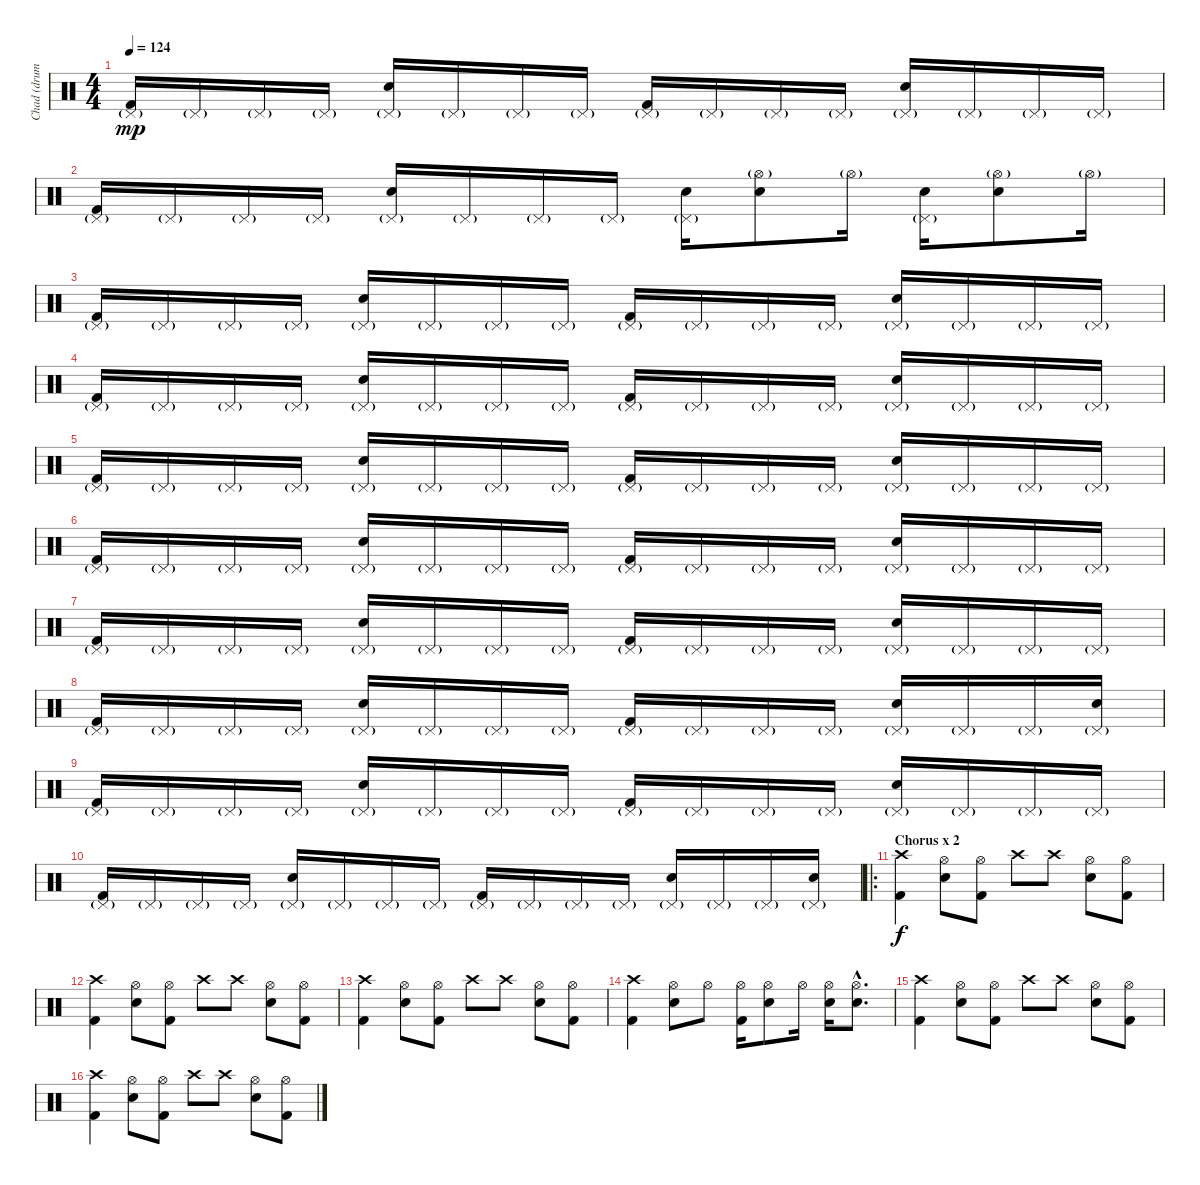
\track ("Chad (drums)" "Chad (drum") {instrument percussion}
\staff {score}
\articulation defaults
\ts (4 4)
\tempo 124
\clef neutral
\ks c
("Kick (hit) 2" "Pedal Hi-Hat (hit)"{g}).16{dy mp} "Pedal Hi-Hat (hit)"{g}.16 "Pedal Hi-Hat (hit)"{g}.16 "Pedal Hi-Hat (hit)"{g}.16 ("Electric Snare (hit)" "Pedal Hi-Hat (hit)"{g}).16 "Pedal Hi-Hat (hit)"{g}.16 "Pedal Hi-Hat (hit)"{g}.16 "Pedal Hi-Hat (hit)"{g}.16 ("Kick (hit) 2" "Pedal Hi-Hat (hit)"{g}).16 "Pedal Hi-Hat (hit)"{g}.16 "Pedal Hi-Hat (hit)"{g}.16 "Pedal Hi-Hat (hit)"{g}.16 ("Electric Snare (hit)" "Pedal Hi-Hat (hit)"{g}).16 "Pedal Hi-Hat (hit)"{g}.16 "Pedal Hi-Hat (hit)"{g}.16 "Pedal Hi-Hat (hit)"{g}.16 |
("Kick (hit) 2" "Pedal Hi-Hat (hit)"{g}).16 "Pedal Hi-Hat (hit)"{g}.16 "Pedal Hi-Hat (hit)"{g}.16 "Pedal Hi-Hat (hit)"{g}.16 ("Electric Snare (hit)" "Pedal Hi-Hat (hit)"{g}).16 "Pedal Hi-Hat (hit)"{g}.16 "Pedal Hi-Hat (hit)"{g}.16 "Pedal Hi-Hat (hit)"{g}.16 ("Electric Snare (hit)" "Pedal Hi-Hat (hit)"{g}).16 ("Electric Snare (hit)" "Hi-Hat (open)"{g}).8 "Hi-Hat (open)"{g}.16 ("Electric Snare (hit)" "Pedal Hi-Hat (hit)"{g}).16 ("Electric Snare (hit)" "Hi-Hat (open)"{g}).8 "Hi-Hat (open)"{g}.16 |
("Kick (hit) 2" "Pedal Hi-Hat (hit)"{g}).16 "Pedal Hi-Hat (hit)"{g}.16 "Pedal Hi-Hat (hit)"{g}.16 "Pedal Hi-Hat (hit)"{g}.16 ("Electric Snare (hit)" "Pedal Hi-Hat (hit)"{g}).16 "Pedal Hi-Hat (hit)"{g}.16 "Pedal Hi-Hat (hit)"{g}.16 "Pedal Hi-Hat (hit)"{g}.16 ("Kick (hit) 2" "Pedal Hi-Hat (hit)"{g}).16 "Pedal Hi-Hat (hit)"{g}.16 "Pedal Hi-Hat (hit)"{g}.16 "Pedal Hi-Hat (hit)"{g}.16 ("Electric Snare (hit)" "Pedal Hi-Hat (hit)"{g}).16 "Pedal Hi-Hat (hit)"{g}.16 "Pedal Hi-Hat (hit)"{g}.16 "Pedal Hi-Hat (hit)"{g}.16 |
("Kick (hit) 2" "Pedal Hi-Hat (hit)"{g}).16 "Pedal Hi-Hat (hit)"{g}.16 "Pedal Hi-Hat (hit)"{g}.16 "Pedal Hi-Hat (hit)"{g}.16 ("Electric Snare (hit)" "Pedal Hi-Hat (hit)"{g}).16 "Pedal Hi-Hat (hit)"{g}.16 "Pedal Hi-Hat (hit)"{g}.16 "Pedal Hi-Hat (hit)"{g}.16 ("Kick (hit) 2" "Pedal Hi-Hat (hit)"{g}).16 "Pedal Hi-Hat (hit)"{g}.16 "Pedal Hi-Hat (hit)"{g}.16 "Pedal Hi-Hat (hit)"{g}.16 ("Electric Snare (hit)" "Pedal Hi-Hat (hit)"{g}).16 "Pedal Hi-Hat (hit)"{g}.16 "Pedal Hi-Hat (hit)"{g}.16 "Pedal Hi-Hat (hit)"{g}.16 |
("Kick (hit) 2" "Pedal Hi-Hat (hit)"{g}).16 "Pedal Hi-Hat (hit)"{g}.16 "Pedal Hi-Hat (hit)"{g}.16 "Pedal Hi-Hat (hit)"{g}.16 ("Electric Snare (hit)" "Pedal Hi-Hat (hit)"{g}).16 "Pedal Hi-Hat (hit)"{g}.16 "Pedal Hi-Hat (hit)"{g}.16 "Pedal Hi-Hat (hit)"{g}.16 ("Kick (hit) 2" "Pedal Hi-Hat (hit)"{g}).16 "Pedal Hi-Hat (hit)"{g}.16 "Pedal Hi-Hat (hit)"{g}.16 "Pedal Hi-Hat (hit)"{g}.16 ("Electric Snare (hit)" "Pedal Hi-Hat (hit)"{g}).16 "Pedal Hi-Hat (hit)"{g}.16 "Pedal Hi-Hat (hit)"{g}.16 "Pedal Hi-Hat (hit)"{g}.16 |
("Kick (hit) 2" "Pedal Hi-Hat (hit)"{g}).16 "Pedal Hi-Hat (hit)"{g}.16 "Pedal Hi-Hat (hit)"{g}.16 "Pedal Hi-Hat (hit)"{g}.16 ("Electric Snare (hit)" "Pedal Hi-Hat (hit)"{g}).16 "Pedal Hi-Hat (hit)"{g}.16 "Pedal Hi-Hat (hit)"{g}.16 "Pedal Hi-Hat (hit)"{g}.16 ("Kick (hit) 2" "Pedal Hi-Hat (hit)"{g}).16 "Pedal Hi-Hat (hit)"{g}.16 "Pedal Hi-Hat (hit)"{g}.16 "Pedal Hi-Hat (hit)"{g}.16 ("Electric Snare (hit)" "Pedal Hi-Hat (hit)"{g}).16 "Pedal Hi-Hat (hit)"{g}.16 "Pedal Hi-Hat (hit)"{g}.16 "Pedal Hi-Hat (hit)"{g}.16 |
("Kick (hit) 2" "Pedal Hi-Hat (hit)"{g}).16 "Pedal Hi-Hat (hit)"{g}.16 "Pedal Hi-Hat (hit)"{g}.16 "Pedal Hi-Hat (hit)"{g}.16 ("Electric Snare (hit)" "Pedal Hi-Hat (hit)"{g}).16 "Pedal Hi-Hat (hit)"{g}.16 "Pedal Hi-Hat (hit)"{g}.16 "Pedal Hi-Hat (hit)"{g}.16 ("Kick (hit) 2" "Pedal Hi-Hat (hit)"{g}).16 "Pedal Hi-Hat (hit)"{g}.16 "Pedal Hi-Hat (hit)"{g}.16 "Pedal Hi-Hat (hit)"{g}.16 ("Electric Snare (hit)" "Pedal Hi-Hat (hit)"{g}).16 "Pedal Hi-Hat (hit)"{g}.16 "Pedal Hi-Hat (hit)"{g}.16 "Pedal Hi-Hat (hit)"{g}.16 |
("Kick (hit) 2" "Pedal Hi-Hat (hit)"{g}).16 "Pedal Hi-Hat (hit)"{g}.16 "Pedal Hi-Hat (hit)"{g}.16 "Pedal Hi-Hat (hit)"{g}.16 ("Electric Snare (hit)" "Pedal Hi-Hat (hit)"{g}).16 "Pedal Hi-Hat (hit)"{g}.16 "Pedal Hi-Hat (hit)"{g}.16 "Pedal Hi-Hat (hit)"{g}.16 ("Kick (hit) 2" "Pedal Hi-Hat (hit)"{g}).16 "Pedal Hi-Hat (hit)"{g}.16 "Pedal Hi-Hat (hit)"{g}.16 "Pedal Hi-Hat (hit)"{g}.16 ("Electric Snare (hit)" "Pedal Hi-Hat (hit)"{g}).16 "Pedal Hi-Hat (hit)"{g}.16 "Pedal Hi-Hat (hit)"{g}.16 ("Electric Snare (hit)" "Pedal Hi-Hat (hit)"{g}).16 |
("Kick (hit) 2" "Pedal Hi-Hat (hit)"{g}).16 "Pedal Hi-Hat (hit)"{g}.16 "Pedal Hi-Hat (hit)"{g}.16 "Pedal Hi-Hat (hit)"{g}.16 ("Electric Snare (hit)" "Pedal Hi-Hat (hit)"{g}).16 "Pedal Hi-Hat (hit)"{g}.16 "Pedal Hi-Hat (hit)"{g}.16 "Pedal Hi-Hat (hit)"{g}.16 ("Kick (hit) 2" "Pedal Hi-Hat (hit)"{g}).16 "Pedal Hi-Hat (hit)"{g}.16 "Pedal Hi-Hat (hit)"{g}.16 "Pedal Hi-Hat (hit)"{g}.16 ("Electric Snare (hit)" "Pedal Hi-Hat (hit)"{g}).16 "Pedal Hi-Hat (hit)"{g}.16 "Pedal Hi-Hat (hit)"{g}.16 "Pedal Hi-Hat (hit)"{g}.16 |
("Kick (hit) 2" "Pedal Hi-Hat (hit)"{g}).16 "Pedal Hi-Hat (hit)"{g}.16 "Pedal Hi-Hat (hit)"{g}.16 "Pedal Hi-Hat (hit)"{g}.16 ("Electric Snare (hit)" "Pedal Hi-Hat (hit)"{g}).16 "Pedal Hi-Hat (hit)"{g}.16 "Pedal Hi-Hat (hit)"{g}.16 "Pedal Hi-Hat (hit)"{g}.16 ("Kick (hit) 2" "Pedal Hi-Hat (hit)"{g}).16 "Pedal Hi-Hat (hit)"{g}.16 "Pedal Hi-Hat (hit)"{g}.16 "Pedal Hi-Hat (hit)"{g}.16 ("Electric Snare (hit)" "Pedal Hi-Hat (hit)"{g}).16 "Pedal Hi-Hat (hit)"{g}.16 "Pedal Hi-Hat (hit)"{g}.16 ("Electric Snare (hit)" "Pedal Hi-Hat (hit)"{g}).16 |
\ro
\section ("" "Chorus x 2")
("Kick (hit) 2" "Crash high (hit)").4{dy f} ("Electric Snare (hit)" "Hi-Hat (open)").8 ("Kick (hit) 2" "Hi-Hat (open)").8 "Crash high (hit)".8 "Crash high (hit)".8 ("Electric Snare (hit)" "Hi-Hat (open)").8 ("Kick (hit) 2" "Hi-Hat (open)").8 |
("Kick (hit) 2" "Crash high (hit)").4 ("Electric Snare (hit)" "Hi-Hat (open)").8 ("Kick (hit) 2" "Hi-Hat (open)").8 "Crash high (hit)".8 "Crash high (hit)".8 ("Electric Snare (hit)" "Hi-Hat (open)").8 ("Kick (hit) 2" "Hi-Hat (open)").8 |
("Kick (hit) 2" "Crash high (hit)").4 ("Electric Snare (hit)" "Hi-Hat (open)").8 ("Kick (hit) 2" "Hi-Hat (open)").8 "Crash high (hit)".8 "Crash high (hit)".8 ("Electric Snare (hit)" "Hi-Hat (open)").8 ("Kick (hit) 2" "Hi-Hat (open)").8 |
("Kick (hit) 2" "Crash high (hit)").4 ("Electric Snare (hit)" "Hi-Hat (open)").8 "Hi-Hat (open)".8 ("Kick (hit) 2" "Hi-Hat (open)").16 ("Electric Snare (hit)" "Hi-Hat (open)").8 "Hi-Hat (open)".16 ("Electric Snare (hit)" "Hi-Hat (open)").16 ("Electric Snare (hit)"{hac} "Hi-Hat (open)"{hac}).8{d} |
("Kick (hit) 2" "Crash high (hit)").4 ("Electric Snare (hit)" "Hi-Hat (open)").8 ("Kick (hit) 2" "Hi-Hat (open)").8 "Crash high (hit)".8 "Crash high (hit)".8 ("Electric Snare (hit)" "Hi-Hat (open)").8 ("Kick (hit) 2" "Hi-Hat (open)").8 |
("Kick (hit) 2" "Crash high (hit)").4 ("Electric Snare (hit)" "Hi-Hat (open)").8 ("Kick (hit) 2" "Hi-Hat (open)").8 "Crash high (hit)".8 "Crash high (hit)".8 ("Electric Snare (hit)" "Hi-Hat (open)").8 ("Kick (hit) 2" "Hi-Hat (open)").8
